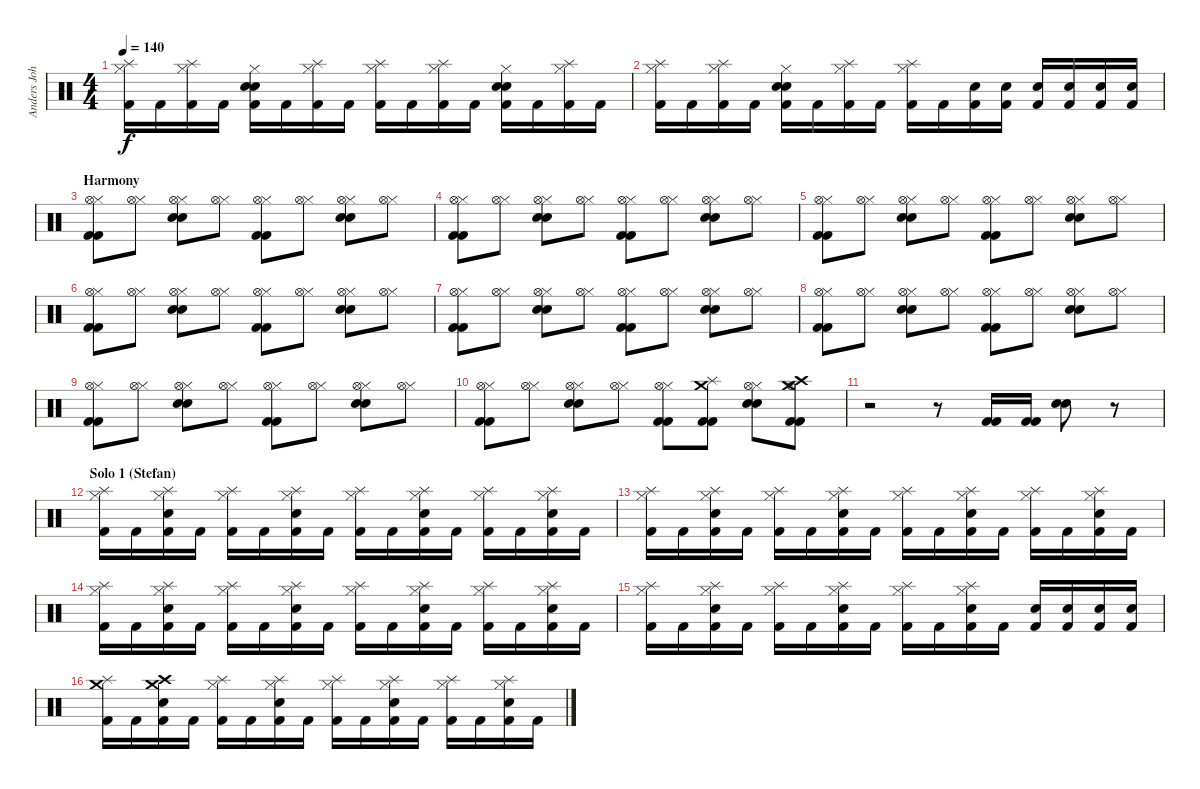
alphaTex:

\track ("Anders Johansson :: Drums" "Anders Joh") {instrument percussion}
\staff {score}
\articulation defaults
\ts (4 4)
\tempo 140
\clef neutral
\ks c
("Hi-Hat (closed)" "Splash (hit)" "Kick (hit) 2").16{dy f} "Kick (hit) 2".16 ("Hi-Hat (closed)" "Splash (hit)" "Kick (hit) 2").16 "Kick (hit) 2".16 ("Hi-Hat (closed)" "Snare (hit) 2" "Snare (hit) 2" "Kick (hit) 2").16 "Kick (hit) 2".16 ("Hi-Hat (closed)" "Splash (hit)" "Kick (hit) 2").16 "Kick (hit) 2".16 ("Hi-Hat (closed)" "Splash (hit)" "Kick (hit) 2").16 "Kick (hit) 2".16 ("Hi-Hat (closed)" "Splash (hit)" "Kick (hit) 2").16 "Kick (hit) 2".16 ("Hi-Hat (closed)" "Snare (hit) 2" "Snare (hit) 2" "Kick (hit) 2").16 "Kick (hit) 2".16 ("Hi-Hat (closed)" "Splash (hit)" "Kick (hit) 2").16 "Kick (hit) 2".16 |
("Hi-Hat (closed)" "Splash (hit)" "Kick (hit) 2").16 "Kick (hit) 2".16 ("Hi-Hat (closed)" "Splash (hit)" "Kick (hit) 2").16 "Kick (hit) 2".16 ("Hi-Hat (closed)" "Snare (hit) 2" "Snare (hit) 2" "Kick (hit) 2").16 "Kick (hit) 2".16 ("Hi-Hat (closed)" "Splash (hit)" "Kick (hit) 2").16 "Kick (hit) 2".16 ("Hi-Hat (closed)" "Splash (hit)" "Kick (hit) 2").16 "Kick (hit) 2".16 ("Snare (hit) 2" "Kick (hit) 2").16 ("Snare (hit) 2" "Kick (hit) 2").16 ("Snare (hit) 2" "Kick (hit) 2").16 ("Snare (hit) 2" "Kick (hit) 2").16 ("Snare (hit) 2" "Kick (hit) 2").16 ("Snare (hit) 2" "Kick (hit) 2").16 |
\section ("" "Harmony ")
("Hi-Hat (closed)" "Hi-Hat (open)" "Kick (hit) 2" "Kick (hit) 2").8 ("Hi-Hat (closed)" "Hi-Hat (open)").8 ("Hi-Hat (closed)" "Hi-Hat (open)" "Snare (hit) 2" "Snare (hit) 2").8 ("Hi-Hat (closed)" "Hi-Hat (open)").8 ("Hi-Hat (closed)" "Hi-Hat (open)" "Kick (hit) 2" "Kick (hit) 2").8 ("Hi-Hat (closed)" "Hi-Hat (open)").8 ("Hi-Hat (closed)" "Hi-Hat (open)" "Snare (hit) 2" "Snare (hit) 2").8 ("Hi-Hat (closed)" "Hi-Hat (open)").8 |
("Hi-Hat (closed)" "Hi-Hat (open)" "Kick (hit) 2" "Kick (hit) 2").8 ("Hi-Hat (closed)" "Hi-Hat (open)").8 ("Hi-Hat (closed)" "Hi-Hat (open)" "Snare (hit) 2" "Snare (hit) 2").8 ("Hi-Hat (closed)" "Hi-Hat (open)").8 ("Hi-Hat (closed)" "Hi-Hat (open)" "Kick (hit) 2" "Kick (hit) 2").8 ("Hi-Hat (closed)" "Hi-Hat (open)").8 ("Hi-Hat (closed)" "Hi-Hat (open)" "Snare (hit) 2" "Snare (hit) 2").8 ("Hi-Hat (closed)" "Hi-Hat (open)").8 |
("Hi-Hat (closed)" "Hi-Hat (open)" "Kick (hit) 2" "Kick (hit) 2").8 ("Hi-Hat (closed)" "Hi-Hat (open)").8 ("Hi-Hat (closed)" "Hi-Hat (open)" "Snare (hit) 2" "Snare (hit) 2").8 ("Hi-Hat (closed)" "Hi-Hat (open)").8 ("Hi-Hat (closed)" "Hi-Hat (open)" "Kick (hit) 2" "Kick (hit) 2").8 ("Hi-Hat (closed)" "Hi-Hat (open)").8 ("Hi-Hat (closed)" "Hi-Hat (open)" "Snare (hit) 2" "Snare (hit) 2").8 ("Hi-Hat (closed)" "Hi-Hat (open)").8 |
("Hi-Hat (closed)" "Hi-Hat (open)" "Kick (hit) 2" "Kick (hit) 2").8 ("Hi-Hat (closed)" "Hi-Hat (open)").8 ("Hi-Hat (closed)" "Hi-Hat (open)" "Snare (hit) 2" "Snare (hit) 2").8 ("Hi-Hat (closed)" "Hi-Hat (open)").8 ("Hi-Hat (closed)" "Hi-Hat (open)" "Kick (hit) 2" "Kick (hit) 2").8 ("Hi-Hat (closed)" "Hi-Hat (open)").8 ("Hi-Hat (closed)" "Hi-Hat (open)" "Snare (hit) 2" "Snare (hit) 2").8 ("Hi-Hat (closed)" "Hi-Hat (open)").8 |
("Hi-Hat (closed)" "Hi-Hat (open)" "Kick (hit) 2" "Kick (hit) 2").8 ("Hi-Hat (closed)" "Hi-Hat (open)").8 ("Hi-Hat (closed)" "Hi-Hat (open)" "Snare (hit) 2" "Snare (hit) 2").8 ("Hi-Hat (closed)" "Hi-Hat (open)").8 ("Hi-Hat (closed)" "Hi-Hat (open)" "Kick (hit) 2" "Kick (hit) 2").8 ("Hi-Hat (closed)" "Hi-Hat (open)").8 ("Hi-Hat (closed)" "Hi-Hat (open)" "Snare (hit) 2" "Snare (hit) 2").8 ("Hi-Hat (closed)" "Hi-Hat (open)").8 |
("Hi-Hat (closed)" "Hi-Hat (open)" "Kick (hit) 2" "Kick (hit) 2").8 ("Hi-Hat (closed)" "Hi-Hat (open)").8 ("Hi-Hat (closed)" "Hi-Hat (open)" "Snare (hit) 2" "Snare (hit) 2").8 ("Hi-Hat (closed)" "Hi-Hat (open)").8 ("Hi-Hat (closed)" "Hi-Hat (open)" "Kick (hit) 2" "Kick (hit) 2").8 ("Hi-Hat (closed)" "Hi-Hat (open)").8 ("Hi-Hat (closed)" "Hi-Hat (open)" "Snare (hit) 2" "Snare (hit) 2").8 ("Hi-Hat (closed)" "Hi-Hat (open)").8 |
("Hi-Hat (closed)" "Hi-Hat (open)" "Kick (hit) 2" "Kick (hit) 2").8 ("Hi-Hat (closed)" "Hi-Hat (open)").8 ("Hi-Hat (closed)" "Hi-Hat (open)" "Snare (hit) 2" "Snare (hit) 2").8 ("Hi-Hat (closed)" "Hi-Hat (open)").8 ("Hi-Hat (closed)" "Hi-Hat (open)" "Kick (hit) 2" "Kick (hit) 2").8 ("Hi-Hat (closed)" "Hi-Hat (open)").8 ("Hi-Hat (closed)" "Hi-Hat (open)" "Snare (hit) 2" "Snare (hit) 2").8 ("Hi-Hat (closed)" "Hi-Hat (open)").8 |
("Hi-Hat (closed)" "Hi-Hat (open)" "Kick (hit) 2" "Kick (hit) 2").8 ("Hi-Hat (closed)" "Hi-Hat (open)").8 ("Hi-Hat (closed)" "Hi-Hat (open)" "Snare (hit) 2" "Snare (hit) 2").8 ("Hi-Hat (closed)" "Hi-Hat (open)").8 ("Hi-Hat (closed)" "Hi-Hat (open)" "Kick (hit) 2" "Kick (hit) 2").8 ("Splash (hit)" "Crash medium (hit)" "Kick (hit) 2" "Kick (hit) 2").8 ("Hi-Hat (closed)" "Hi-Hat (open)" "Snare (hit) 2" "Snare (hit) 2").8 ("Crash high (hit)" "Hi-Hat (open)" "Crash medium (hit)" "Kick (hit) 2" "Kick (hit) 2").8 |
r.2 r.8 ("Kick (hit) 2" "Kick (hit) 2").16 ("Kick (hit) 2" "Kick (hit) 2").16 ("Snare (hit) 2" "Snare (hit) 2").8 r.8 |
\section ("" "Solo 1 (Stefan)")
("Hi-Hat (closed)" "Splash (hit)" "Kick (hit) 2").16 "Kick (hit) 2".16 ("Hi-Hat (closed)" "Splash (hit)" "Snare (hit) 2" "Kick (hit) 2").16 "Kick (hit) 2".16 ("Hi-Hat (closed)" "Splash (hit)" "Kick (hit) 2").16 "Kick (hit) 2".16 ("Hi-Hat (closed)" "Splash (hit)" "Snare (hit) 2" "Kick (hit) 2").16 "Kick (hit) 2".16 ("Hi-Hat (closed)" "Splash (hit)" "Kick (hit) 2").16 "Kick (hit) 2".16 ("Hi-Hat (closed)" "Splash (hit)" "Snare (hit) 2" "Kick (hit) 2").16 "Kick (hit) 2".16 ("Hi-Hat (closed)" "Splash (hit)" "Kick (hit) 2").16 "Kick (hit) 2".16 ("Hi-Hat (closed)" "Splash (hit)" "Snare (hit) 2" "Kick (hit) 2").16 "Kick (hit) 2".16 |
("Hi-Hat (closed)" "Splash (hit)" "Kick (hit) 2").16 "Kick (hit) 2".16 ("Hi-Hat (closed)" "Splash (hit)" "Snare (hit) 2" "Kick (hit) 2").16 "Kick (hit) 2".16 ("Hi-Hat (closed)" "Splash (hit)" "Kick (hit) 2").16 "Kick (hit) 2".16 ("Hi-Hat (closed)" "Splash (hit)" "Snare (hit) 2" "Kick (hit) 2").16 "Kick (hit) 2".16 ("Hi-Hat (closed)" "Splash (hit)" "Kick (hit) 2").16 "Kick (hit) 2".16 ("Hi-Hat (closed)" "Splash (hit)" "Snare (hit) 2" "Kick (hit) 2").16 "Kick (hit) 2".16 ("Hi-Hat (closed)" "Splash (hit)" "Kick (hit) 2").16 "Kick (hit) 2".16 ("Hi-Hat (closed)" "Splash (hit)" "Snare (hit) 2" "Kick (hit) 2").16 "Kick (hit) 2".16 |
("Hi-Hat (closed)" "Splash (hit)" "Kick (hit) 2").16 "Kick (hit) 2".16 ("Hi-Hat (closed)" "Splash (hit)" "Snare (hit) 2" "Kick (hit) 2").16 "Kick (hit) 2".16 ("Hi-Hat (closed)" "Splash (hit)" "Kick (hit) 2").16 "Kick (hit) 2".16 ("Hi-Hat (closed)" "Splash (hit)" "Snare (hit) 2" "Kick (hit) 2").16 "Kick (hit) 2".16 ("Hi-Hat (closed)" "Splash (hit)" "Kick (hit) 2").16 "Kick (hit) 2".16 ("Hi-Hat (closed)" "Splash (hit)" "Snare (hit) 2" "Kick (hit) 2").16 "Kick (hit) 2".16 ("Hi-Hat (closed)" "Splash (hit)" "Kick (hit) 2").16 "Kick (hit) 2".16 ("Hi-Hat (closed)" "Splash (hit)" "Snare (hit) 2" "Kick (hit) 2").16 "Kick (hit) 2".16 |
("Hi-Hat (closed)" "Splash (hit)" "Kick (hit) 2").16 "Kick (hit) 2".16 ("Hi-Hat (closed)" "Splash (hit)" "Snare (hit) 2" "Kick (hit) 2").16 "Kick (hit) 2".16 ("Hi-Hat (closed)" "Splash (hit)" "Kick (hit) 2").16 "Kick (hit) 2".16 ("Hi-Hat (closed)" "Splash (hit)" "Snare (hit) 2" "Kick (hit) 2").16 "Kick (hit) 2".16 ("Hi-Hat (closed)" "Splash (hit)" "Kick (hit) 2").16 "Kick (hit) 2".16 ("Hi-Hat (closed)" "Splash (hit)" "Snare (hit) 2" "Kick (hit) 2").16 "Kick (hit) 2".16 ("Snare (hit) 2" "Kick (hit) 2").16 ("Snare (hit) 2" "Kick (hit) 2").16 ("Snare (hit) 2" "Kick (hit) 2").16 ("Snare (hit) 2" "Kick (hit) 2").16 |
("Crash medium (hit)" "Splash (hit)" "Kick (hit) 2").16 "Kick (hit) 2".16 ("Crash medium (hit)" "Crash high (hit)" "Snare (hit) 2" "Kick (hit) 2").16 "Kick (hit) 2".16 ("Hi-Hat (closed)" "Splash (hit)" "Kick (hit) 2").16 "Kick (hit) 2".16 ("Hi-Hat (closed)" "Splash (hit)" "Snare (hit) 2" "Kick (hit) 2").16 "Kick (hit) 2".16 ("Hi-Hat (closed)" "Splash (hit)" "Kick (hit) 2").16 "Kick (hit) 2".16 ("Hi-Hat (closed)" "Splash (hit)" "Snare (hit) 2" "Kick (hit) 2").16 "Kick (hit) 2".16 ("Hi-Hat (closed)" "Splash (hit)" "Kick (hit) 2").16 "Kick (hit) 2".16 ("Hi-Hat (closed)" "Splash (hit)" "Snare (hit) 2" "Kick (hit) 2").16 "Kick (hit) 2".16
